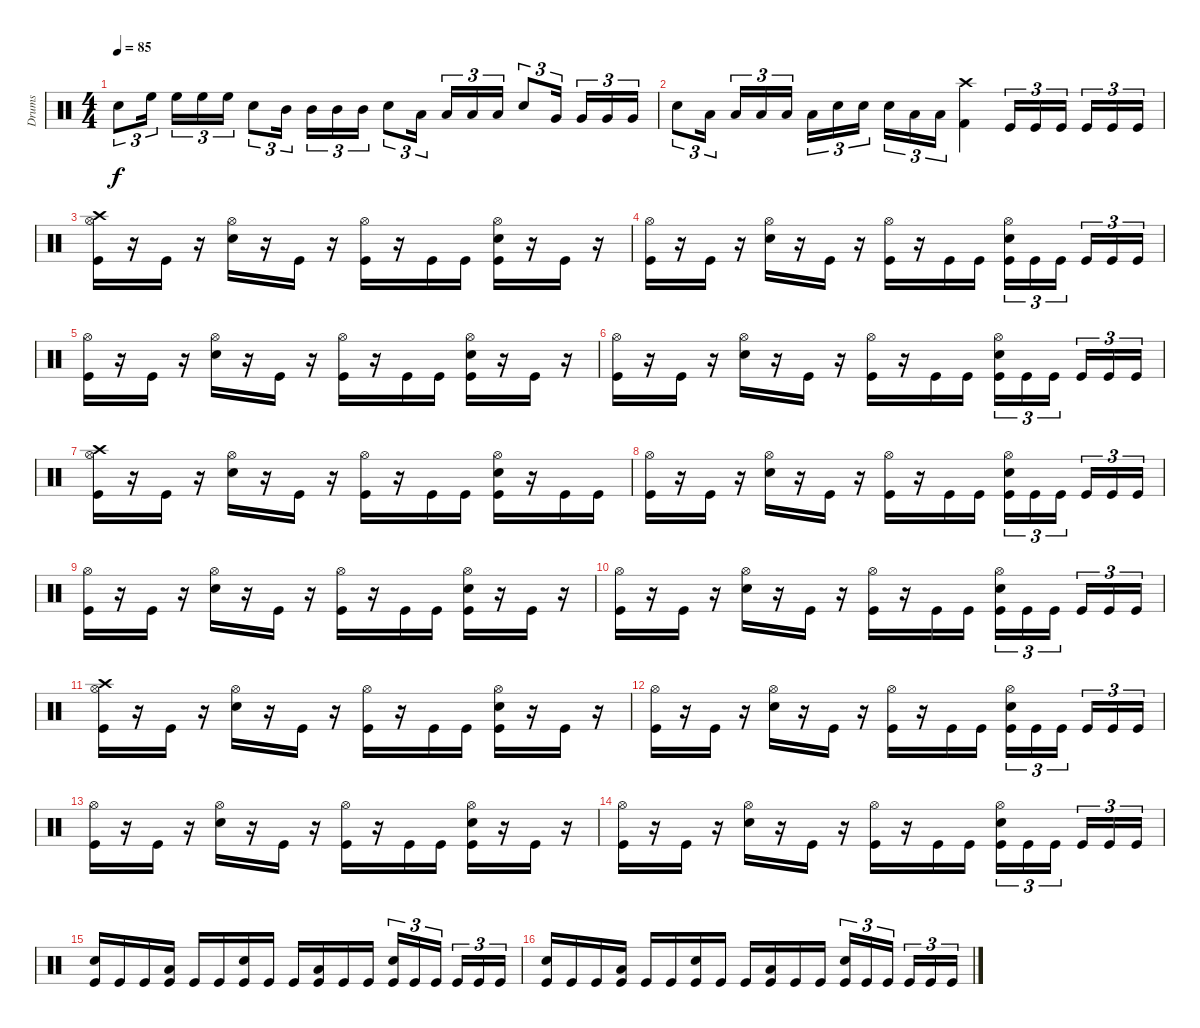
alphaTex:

\track ("Drums" "Drums") {instrument percussion}
\staff {score}
\articulation defaults
\ts (4 4)
\tempo 85
\clef neutral
\ks c "Snare (hit) 2".8{tu (3 2) dy f} "High Floor Tom (hit)".16{tu (3 2)} "High Floor Tom (hit)".16{tu (3 2)} "High Floor Tom (hit)".16{tu (3 2)} "High Floor Tom (hit)".16{tu (3 2)} "Snare (hit) 2".8{tu (3 2)} "Mid Tom (hit)".16{tu (3 2)} "Mid Tom (hit)".16{tu (3 2)} "Mid Tom (hit)".16{tu (3 2)} "Mid Tom (hit)".16{tu (3 2)} "Snare (hit) 2".8{tu (3 2)} "Low Tom (hit)".16{tu (3 2)} "Low Tom (hit)".16{tu (3 2)} "Low Tom (hit)".16{tu (3 2)} "Low Tom (hit)".16{tu (3 2)} "Snare (hit) 2".8{tu (3 2)} "Very Low Tom (hit)".16{tu (3 2)} "Very Low Tom (hit)".16{tu (3 2)} "Very Low Tom (hit)".16{tu (3 2)} "Very Low Tom (hit)".16{tu (3 2)}
|
"Snare (hit) 2".8{tu (3 2)} "Low Floor Tom (hit)".16{tu (3 2)} "Low Floor Tom (hit)".16{tu (3 2)} "Low Floor Tom (hit)".16{tu (3 2)} "Low Floor Tom (hit)".16{tu (3 2)} "Low Floor Tom (hit)".16{tu (3 2)} "Snare (hit) 2".16{tu (3 2)} "Snare (hit) 2".16{tu (3 2)} "Snare (hit) 2".16{tu (3 2)} "Low Tom (hit)".16{tu (3 2)} "Low Tom (hit)".16{tu (3 2)} ("Crash high (hit)" "Kick (hit) 2").4 "Kick (hit)".16{tu (3 2)} "Kick (hit)".16{tu (3 2)} "Kick (hit)".16{tu (3 2)} "Kick (hit)".16{tu (3 2)} "Kick (hit)".16{tu (3 2)} "Kick (hit)".16{tu (3 2)} |
("Crash high (hit)" "Hi-Hat (open)" "Kick (hit)").16 r.16 "Kick (hit)".16 r.16 ("Hi-Hat (open)" "Snare (hit) 2").16 r.16 "Kick (hit)".16 r.16 ("Hi-Hat (open)" "Kick (hit)").16 r.16 "Kick (hit)".16 "Kick (hit)".16 ("Hi-Hat (open)" "Snare (hit) 2" "Kick (hit)").16 r.16 "Kick (hit)".16 r.16 |
("Hi-Hat (open)" "Kick (hit)").16 r.16 "Kick (hit)".16 r.16 ("Hi-Hat (open)" "Snare (hit) 2").16 r.16 "Kick (hit)".16 r.16 ("Hi-Hat (open)" "Kick (hit)").16 r.16 "Kick (hit)".16 "Kick (hit)".16 ("Hi-Hat (open)" "Snare (hit) 2" "Kick (hit)").16{tu (3 2)} "Kick (hit)".16{tu (3 2)} "Kick (hit)".16{tu (3 2)} "Kick (hit)".16{tu (3 2)} "Kick (hit)".16{tu (3 2)} "Kick (hit)".16{tu (3 2)} |
("Hi-Hat (open)" "Kick (hit)").16 r.16 "Kick (hit)".16 r.16 ("Hi-Hat (open)" "Snare (hit) 2").16 r.16 "Kick (hit)".16 r.16 ("Hi-Hat (open)" "Kick (hit)").16 r.16 "Kick (hit)".16 "Kick (hit)".16 ("Hi-Hat (open)" "Snare (hit) 2" "Kick (hit)").16 r.16 "Kick (hit)".16 r.16 |
("Hi-Hat (open)" "Kick (hit)").16 r.16 "Kick (hit)".16 r.16 ("Hi-Hat (open)" "Snare (hit) 2").16 r.16 "Kick (hit)".16 r.16 ("Hi-Hat (open)" "Kick (hit)").16 r.16 "Kick (hit)".16 "Kick (hit)".16 ("Hi-Hat (open)" "Snare (hit) 2" "Kick (hit)").16{tu (3 2)} "Kick (hit)".16{tu (3 2)} "Kick (hit)".16{tu (3 2)} "Kick (hit)".16{tu (3 2)} "Kick (hit)".16{tu (3 2)} "Kick (hit)".16{tu (3 2)} |
("Crash high (hit)" "Hi-Hat (open)" "Kick (hit)").16 r.16 "Kick (hit)".16 r.16 ("Hi-Hat (open)" "Snare (hit) 2").16 r.16 "Kick (hit)".16 r.16 ("Hi-Hat (open)" "Kick (hit)").16 r.16 "Kick (hit)".16 "Kick (hit)".16 ("Hi-Hat (open)" "Snare (hit) 2" "Kick (hit)").16 r.16 "Kick (hit)".16 "Kick (hit)".16 |
("Hi-Hat (open)" "Kick (hit)").16 r.16 "Kick (hit)".16 r.16 ("Hi-Hat (open)" "Snare (hit) 2").16 r.16 "Kick (hit)".16 r.16 ("Hi-Hat (open)" "Kick (hit)").16 r.16 "Kick (hit)".16 "Kick (hit)".16 ("Hi-Hat (open)" "Snare (hit) 2" "Kick (hit)").16{tu (3 2)} "Kick (hit)".16{tu (3 2)} "Kick (hit)".16{tu (3 2)} "Kick (hit)".16{tu (3 2)} "Kick (hit)".16{tu (3 2)} "Kick (hit)".16{tu (3 2)} |
("Hi-Hat (open)" "Kick (hit)").16 r.16 "Kick (hit)".16 r.16 ("Hi-Hat (open)" "Snare (hit) 2").16 r.16 "Kick (hit)".16 r.16 ("Hi-Hat (open)" "Kick (hit)").16 r.16 "Kick (hit)".16 "Kick (hit)".16 ("Hi-Hat (open)" "Snare (hit) 2" "Kick (hit)").16 r.16 "Kick (hit)".16 r.16 |
("Hi-Hat (open)" "Kick (hit)").16 r.16 "Kick (hit)".16 r.16 ("Hi-Hat (open)" "Snare (hit) 2").16 r.16 "Kick (hit)".16 r.16 ("Hi-Hat (open)" "Kick (hit)").16 r.16 "Kick (hit)".16 "Kick (hit)".16 ("Hi-Hat (open)" "Snare (hit) 2" "Kick (hit)").16{tu (3 2)} "Kick (hit)".16{tu (3 2)} "Kick (hit)".16{tu (3 2)} "Kick (hit)".16{tu (3 2)} "Kick (hit)".16{tu (3 2)} "Kick (hit)".16{tu (3 2)} |
("Crash high (hit)" "Hi-Hat (open)" "Kick (hit)").16 r.16 "Kick (hit)".16 r.16 ("Hi-Hat (open)" "Snare (hit) 2").16 r.16 "Kick (hit)".16 r.16 ("Hi-Hat (open)" "Kick (hit)").16 r.16 "Kick (hit)".16 "Kick (hit)".16 ("Hi-Hat (open)" "Snare (hit) 2" "Kick (hit)").16 r.16 "Kick (hit)".16 r.16 |
("Hi-Hat (open)" "Kick (hit)").16 r.16 "Kick (hit)".16 r.16 ("Hi-Hat (open)" "Snare (hit) 2").16 r.16 "Kick (hit)".16 r.16 ("Hi-Hat (open)" "Kick (hit)").16 r.16 "Kick (hit)".16 "Kick (hit)".16 ("Hi-Hat (open)" "Snare (hit) 2" "Kick (hit)").16{tu (3 2)} "Kick (hit)".16{tu (3 2)} "Kick (hit)".16{tu (3 2)} "Kick (hit)".16{tu (3 2)} "Kick (hit)".16{tu (3 2)} "Kick (hit)".16{tu (3 2)} |
("Hi-Hat (open)" "Kick (hit)").16 r.16 "Kick (hit)".16 r.16 ("Hi-Hat (open)" "Snare (hit) 2").16 r.16 "Kick (hit)".16 r.16 ("Hi-Hat (open)" "Kick (hit)").16 r.16 "Kick (hit)".16 "Kick (hit)".16 ("Hi-Hat (open)" "Snare (hit) 2" "Kick (hit)").16 r.16 "Kick (hit)".16 r.16 |
("Hi-Hat (open)" "Kick (hit)").16 r.16 "Kick (hit)".16 r.16 ("Hi-Hat (open)" "Snare (hit) 2").16 r.16 "Kick (hit)".16 r.16 ("Hi-Hat (open)" "Kick (hit)").16 r.16 "Kick (hit)".16 "Kick (hit)".16 ("Hi-Hat (open)" "Snare (hit) 2" "Kick (hit)").16{tu (3 2)} "Kick (hit)".16{tu (3 2)} "Kick (hit)".16{tu (3 2)} "Kick (hit)".16{tu (3 2)} "Kick (hit)".16{tu (3 2)} "Kick (hit)".16{tu (3 2)} |
("Snare (hit) 2" "Kick (hit)").16 "Kick (hit)".16 "Kick (hit)".16 ("Low Floor Tom (hit)" "Kick (hit)").16 "Kick (hit)".16 "Kick (hit)".16 ("Snare (hit) 2" "Kick (hit)").16 "Kick (hit)".16 "Kick (hit)".16 ("Low Floor Tom (hit)" "Kick (hit)").16 "Kick (hit)".16 "Kick (hit)".16 ("Snare (hit) 2" "Kick (hit)").16{tu (3 2)} "Kick (hit)".16{tu (3 2)} "Kick (hit)".16{tu (3 2)} "Kick (hit)".16{tu (3 2)} "Kick (hit)".16{tu (3 2)} "Kick (hit)".16{tu (3 2)} |
("Snare (hit) 2" "Kick (hit)").16 "Kick (hit)".16 "Kick (hit)".16 ("Low Floor Tom (hit)" "Kick (hit)").16 "Kick (hit)".16 "Kick (hit)".16 ("Snare (hit) 2" "Kick (hit)").16 "Kick (hit)".16 "Kick (hit)".16 ("Low Floor Tom (hit)" "Kick (hit)").16 "Kick (hit)".16 "Kick (hit)".16 ("Snare (hit) 2" "Kick (hit)").16{tu (3 2)} "Kick (hit)".16{tu (3 2)} "Kick (hit)".16{tu (3 2)} "Kick (hit)".16{tu (3 2)} "Kick (hit)".16{tu (3 2)} "Kick (hit)".16{tu (3 2)}
